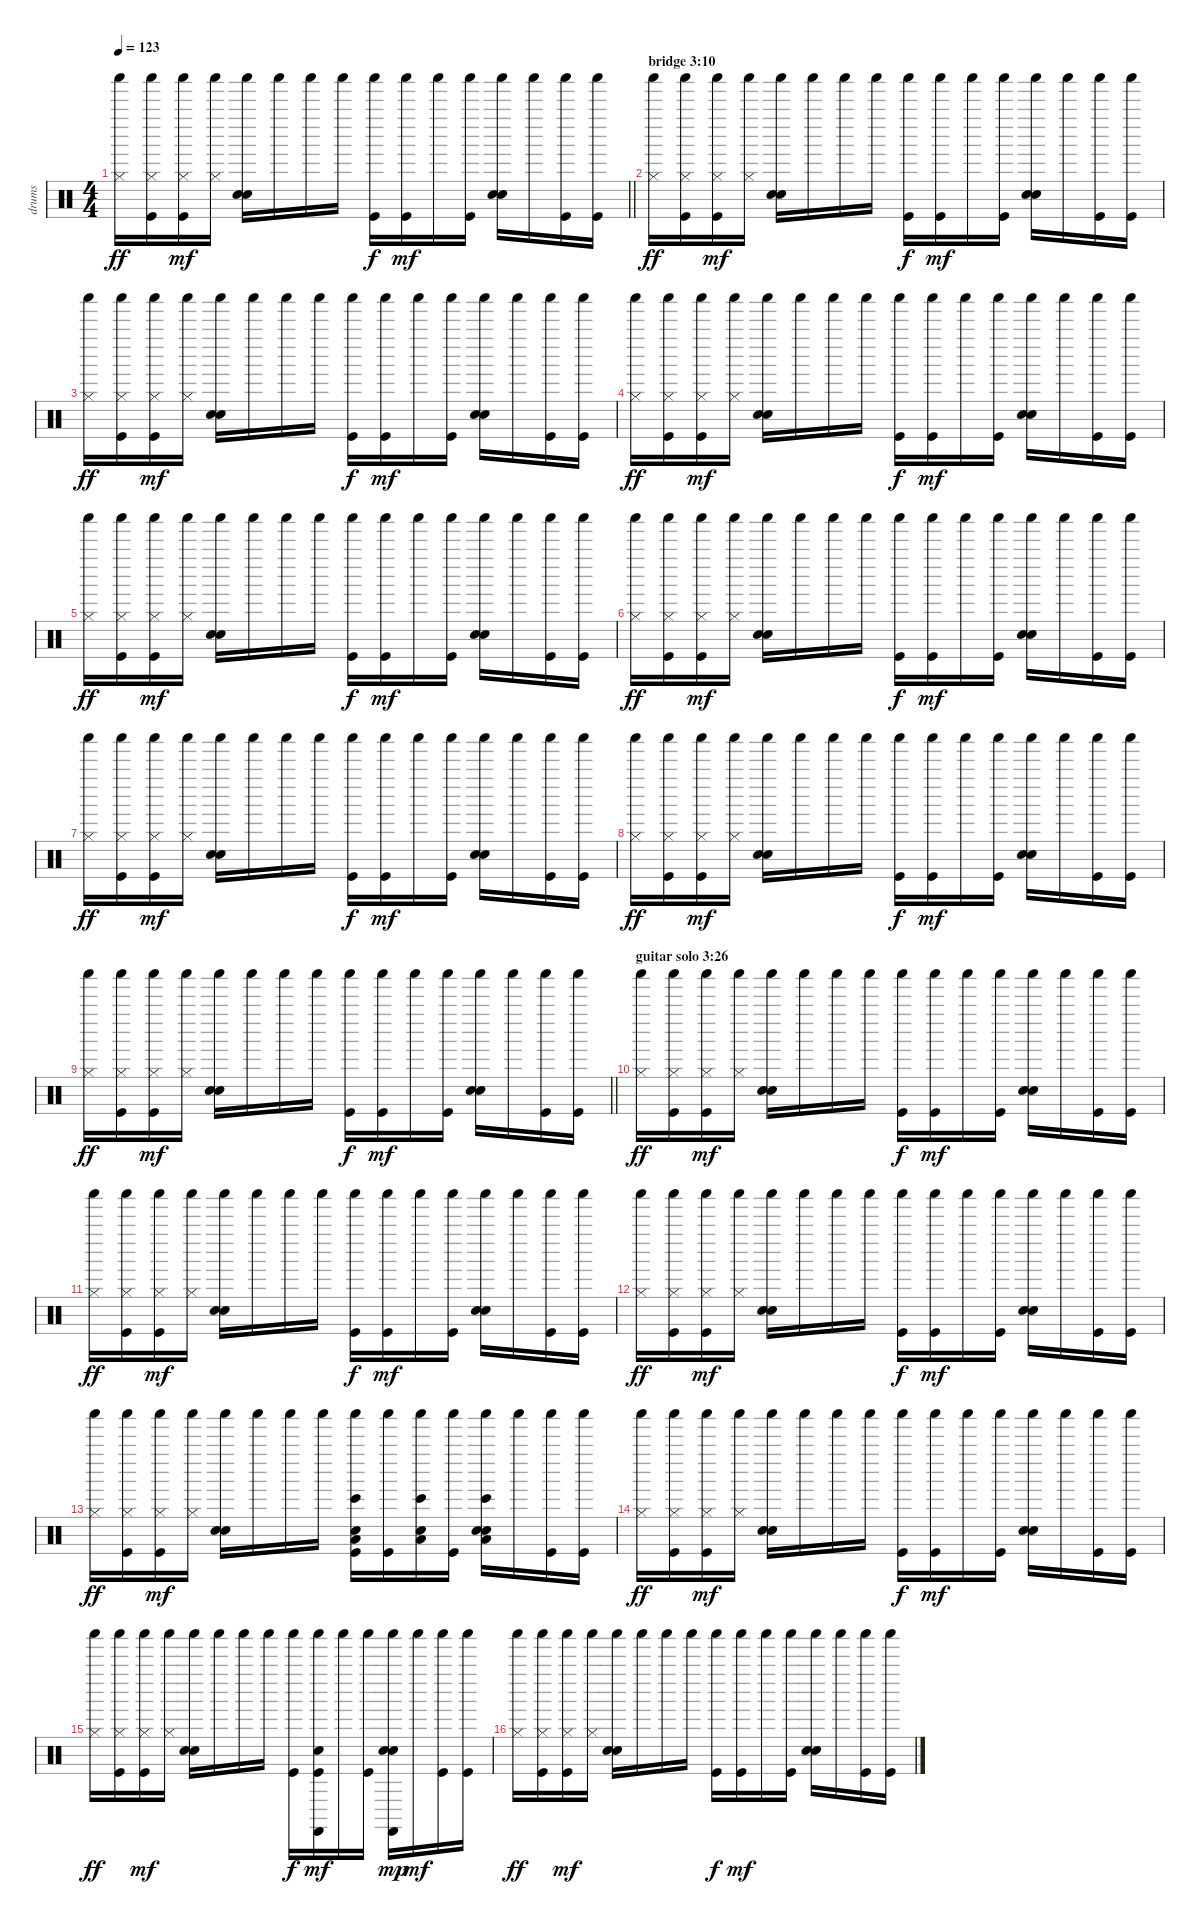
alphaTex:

\track ("drums" "drums") {instrument percussion}
\staff {score}
\articulation defaults
\ts (4 4)
\tempo 123
\clef neutral
\barLineRight lightlight
\ks c
("Shaker (hit)" "Hi-Hat (closed)").16{dy ff} ("Shaker (hit)" "Hi-Hat (closed)" "Kick (hit)").16 ("Shaker (hit)" "Hi-Hat (closed)" "Kick (hit)").16{dy mf} ("Shaker (hit)" "Hi-Hat (closed)").16 ("Shaker (hit)" "Electric Snare (hit)" "Hand Clap (hit)").16 "Shaker (hit)".16 "Shaker (hit)".16 "Shaker (hit)".16 ("Shaker (hit)" "Kick (hit)").16{dy f} ("Shaker (hit)" "Kick (hit)").16{dy mf} "Shaker (hit)".16 ("Shaker (hit)" "Kick (hit)").16 ("Shaker (hit)" "Electric Snare (hit)" "Hand Clap (hit)").16 "Shaker (hit)".16 ("Shaker (hit)" "Kick (hit)").16 ("Shaker (hit)" "Kick (hit)").16 |
\section ("" "bridge 3:10")
("Shaker (hit)" "Hi-Hat (closed)").16{dy ff} ("Shaker (hit)" "Hi-Hat (closed)" "Kick (hit)").16 ("Shaker (hit)" "Hi-Hat (closed)" "Kick (hit)").16{dy mf} ("Shaker (hit)" "Hi-Hat (closed)").16 ("Shaker (hit)" "Electric Snare (hit)" "Hand Clap (hit)").16 "Shaker (hit)".16 "Shaker (hit)".16 "Shaker (hit)".16 ("Shaker (hit)" "Kick (hit)").16{dy f} ("Shaker (hit)" "Kick (hit)").16{dy mf} "Shaker (hit)".16 ("Shaker (hit)" "Kick (hit)").16 ("Shaker (hit)" "Electric Snare (hit)" "Hand Clap (hit)").16 "Shaker (hit)".16 ("Shaker (hit)" "Kick (hit)").16 ("Shaker (hit)" "Kick (hit)").16 |
("Shaker (hit)" "Hi-Hat (closed)").16{dy ff} ("Shaker (hit)" "Hi-Hat (closed)" "Kick (hit)").16 ("Shaker (hit)" "Hi-Hat (closed)" "Kick (hit)").16{dy mf} ("Shaker (hit)" "Hi-Hat (closed)").16 ("Shaker (hit)" "Electric Snare (hit)" "Hand Clap (hit)").16 "Shaker (hit)".16 "Shaker (hit)".16 "Shaker (hit)".16 ("Shaker (hit)" "Kick (hit)").16{dy f} ("Shaker (hit)" "Kick (hit)").16{dy mf} "Shaker (hit)".16 ("Shaker (hit)" "Kick (hit)").16 ("Shaker (hit)" "Electric Snare (hit)" "Hand Clap (hit)").16 "Shaker (hit)".16 ("Shaker (hit)" "Kick (hit)").16 ("Shaker (hit)" "Kick (hit)").16 |
("Shaker (hit)" "Hi-Hat (closed)").16{dy ff} ("Shaker (hit)" "Hi-Hat (closed)" "Kick (hit)").16 ("Shaker (hit)" "Hi-Hat (closed)" "Kick (hit)").16{dy mf} ("Shaker (hit)" "Hi-Hat (closed)").16 ("Shaker (hit)" "Electric Snare (hit)" "Hand Clap (hit)").16 "Shaker (hit)".16 "Shaker (hit)".16 "Shaker (hit)".16 ("Shaker (hit)" "Kick (hit)").16{dy f} ("Shaker (hit)" "Kick (hit)").16{dy mf} "Shaker (hit)".16 ("Shaker (hit)" "Kick (hit)").16 ("Shaker (hit)" "Electric Snare (hit)" "Hand Clap (hit)").16 "Shaker (hit)".16 ("Shaker (hit)" "Kick (hit)").16 ("Shaker (hit)" "Kick (hit)").16 |
("Shaker (hit)" "Hi-Hat (closed)").16{dy ff} ("Shaker (hit)" "Hi-Hat (closed)" "Kick (hit)").16 ("Shaker (hit)" "Hi-Hat (closed)" "Kick (hit)").16{dy mf} ("Shaker (hit)" "Hi-Hat (closed)").16 ("Shaker (hit)" "Electric Snare (hit)" "Hand Clap (hit)").16 "Shaker (hit)".16 "Shaker (hit)".16 "Shaker (hit)".16 ("Shaker (hit)" "Kick (hit)").16{dy f} ("Shaker (hit)" "Kick (hit)").16{dy mf} "Shaker (hit)".16 ("Shaker (hit)" "Kick (hit)").16 ("Shaker (hit)" "Electric Snare (hit)" "Hand Clap (hit)").16 "Shaker (hit)".16 ("Shaker (hit)" "Kick (hit)").16 ("Shaker (hit)" "Kick (hit)").16 |
("Shaker (hit)" "Hi-Hat (closed)").16{dy ff} ("Shaker (hit)" "Hi-Hat (closed)" "Kick (hit)").16 ("Shaker (hit)" "Hi-Hat (closed)" "Kick (hit)").16{dy mf} ("Shaker (hit)" "Hi-Hat (closed)").16 ("Shaker (hit)" "Electric Snare (hit)" "Hand Clap (hit)").16 "Shaker (hit)".16 "Shaker (hit)".16 "Shaker (hit)".16 ("Shaker (hit)" "Kick (hit)").16{dy f} ("Shaker (hit)" "Kick (hit)").16{dy mf} "Shaker (hit)".16 ("Shaker (hit)" "Kick (hit)").16 ("Shaker (hit)" "Electric Snare (hit)" "Hand Clap (hit)").16 "Shaker (hit)".16 ("Shaker (hit)" "Kick (hit)").16 ("Shaker (hit)" "Kick (hit)").16 |
("Shaker (hit)" "Hi-Hat (closed)").16{dy ff} ("Shaker (hit)" "Hi-Hat (closed)" "Kick (hit)").16 ("Shaker (hit)" "Hi-Hat (closed)" "Kick (hit)").16{dy mf} ("Shaker (hit)" "Hi-Hat (closed)").16 ("Shaker (hit)" "Electric Snare (hit)" "Hand Clap (hit)").16 "Shaker (hit)".16 "Shaker (hit)".16 "Shaker (hit)".16 ("Shaker (hit)" "Kick (hit)").16{dy f} ("Shaker (hit)" "Kick (hit)").16{dy mf} "Shaker (hit)".16 ("Shaker (hit)" "Kick (hit)").16 ("Shaker (hit)" "Electric Snare (hit)" "Hand Clap (hit)").16 "Shaker (hit)".16 ("Shaker (hit)" "Kick (hit)").16 ("Shaker (hit)" "Kick (hit)").16 |
("Shaker (hit)" "Hi-Hat (closed)").16{dy ff} ("Shaker (hit)" "Hi-Hat (closed)" "Kick (hit)").16 ("Shaker (hit)" "Hi-Hat (closed)" "Kick (hit)").16{dy mf} ("Shaker (hit)" "Hi-Hat (closed)").16 ("Shaker (hit)" "Electric Snare (hit)" "Hand Clap (hit)").16 "Shaker (hit)".16 "Shaker (hit)".16 "Shaker (hit)".16 ("Shaker (hit)" "Kick (hit)").16{dy f} ("Shaker (hit)" "Kick (hit)").16{dy mf} "Shaker (hit)".16 ("Shaker (hit)" "Kick (hit)").16 ("Shaker (hit)" "Electric Snare (hit)" "Hand Clap (hit)").16 "Shaker (hit)".16 ("Shaker (hit)" "Kick (hit)").16 ("Shaker (hit)" "Kick (hit)").16 |
\barLineRight lightlight
("Shaker (hit)" "Hi-Hat (closed)").16{dy ff} ("Shaker (hit)" "Hi-Hat (closed)" "Kick (hit)").16 ("Shaker (hit)" "Hi-Hat (closed)" "Kick (hit)").16{dy mf} ("Shaker (hit)" "Hi-Hat (closed)").16 ("Shaker (hit)" "Electric Snare (hit)" "Hand Clap (hit)").16 "Shaker (hit)".16 "Shaker (hit)".16 "Shaker (hit)".16 ("Shaker (hit)" "Kick (hit)").16{dy f} ("Shaker (hit)" "Kick (hit)").16{dy mf} "Shaker (hit)".16 ("Shaker (hit)" "Kick (hit)").16 ("Shaker (hit)" "Electric Snare (hit)" "Hand Clap (hit)").16 "Shaker (hit)".16 ("Shaker (hit)" "Kick (hit)").16 ("Shaker (hit)" "Kick (hit)").16 |
\section ("" "guitar solo 3:26")
("Shaker (hit)" "Hi-Hat (closed)").16{dy ff} ("Shaker (hit)" "Hi-Hat (closed)" "Kick (hit)").16 ("Shaker (hit)" "Hi-Hat (closed)" "Kick (hit)").16{dy mf} ("Shaker (hit)" "Hi-Hat (closed)").16 ("Shaker (hit)" "Electric Snare (hit)" "Hand Clap (hit)").16 "Shaker (hit)".16 "Shaker (hit)".16 "Shaker (hit)".16 ("Shaker (hit)" "Kick (hit)").16{dy f} ("Shaker (hit)" "Kick (hit)").16{dy mf} "Shaker (hit)".16 ("Shaker (hit)" "Kick (hit)").16 ("Shaker (hit)" "Electric Snare (hit)" "Hand Clap (hit)").16 "Shaker (hit)".16 ("Shaker (hit)" "Kick (hit)").16 ("Shaker (hit)" "Kick (hit)").16 |
("Shaker (hit)" "Hi-Hat (closed)").16{dy ff} ("Shaker (hit)" "Hi-Hat (closed)" "Kick (hit)").16 ("Shaker (hit)" "Hi-Hat (closed)" "Kick (hit)").16{dy mf} ("Shaker (hit)" "Hi-Hat (closed)").16 ("Shaker (hit)" "Electric Snare (hit)" "Hand Clap (hit)").16 "Shaker (hit)".16 "Shaker (hit)".16 "Shaker (hit)".16 ("Shaker (hit)" "Kick (hit)").16{dy f} ("Shaker (hit)" "Kick (hit)").16{dy mf} "Shaker (hit)".16 ("Shaker (hit)" "Kick (hit)").16 ("Shaker (hit)" "Electric Snare (hit)" "Hand Clap (hit)").16 "Shaker (hit)".16 ("Shaker (hit)" "Kick (hit)").16 ("Shaker (hit)" "Kick (hit)").16 |
("Shaker (hit)" "Hi-Hat (closed)").16{dy ff} ("Shaker (hit)" "Hi-Hat (closed)" "Kick (hit)").16 ("Shaker (hit)" "Hi-Hat (closed)" "Kick (hit)").16{dy mf} ("Shaker (hit)" "Hi-Hat (closed)").16 ("Shaker (hit)" "Electric Snare (hit)" "Hand Clap (hit)").16 "Shaker (hit)".16 "Shaker (hit)".16 "Shaker (hit)".16 ("Shaker (hit)" "Kick (hit)").16{dy f} ("Shaker (hit)" "Kick (hit)").16{dy mf} "Shaker (hit)".16 ("Shaker (hit)" "Kick (hit)").16 ("Shaker (hit)" "Electric Snare (hit)" "Hand Clap (hit)").16 "Shaker (hit)".16 ("Shaker (hit)" "Kick (hit)").16 ("Shaker (hit)" "Kick (hit)").16 |
("Shaker (hit)" "Hi-Hat (closed)").16{dy ff} ("Shaker (hit)" "Hi-Hat (closed)" "Kick (hit)").16 ("Shaker (hit)" "Hi-Hat (closed)" "Kick (hit)").16{dy mf} ("Shaker (hit)" "Hi-Hat (closed)").16 ("Shaker (hit)" "Electric Snare (hit)" "Hand Clap (hit)").16 "Shaker (hit)".16 "Shaker (hit)".16 "Shaker (hit)".16 ("Shaker (hit)" "Hand Clap (hit)" "Bongo High (hit)" "Low Tom (hit)" "Kick (hit)").16 ("Shaker (hit)" "Kick (hit)").16 ("Shaker (hit)" "Hand Clap (hit)" "Bongo High (hit)" "Low Tom (hit)").16 ("Shaker (hit)" "Kick (hit)").16 ("Shaker (hit)" "Electric Snare (hit)" "Hand Clap (hit)" "Bongo High (hit)" "Low Tom (hit)").16 "Shaker (hit)".16 ("Shaker (hit)" "Kick (hit)").16 ("Shaker (hit)" "Kick (hit)").16 |
("Shaker (hit)" "Hi-Hat (closed)").16{dy ff} ("Shaker (hit)" "Hi-Hat (closed)" "Kick (hit)").16 ("Shaker (hit)" "Hi-Hat (closed)" "Kick (hit)").16{dy mf} ("Shaker (hit)" "Hi-Hat (closed)").16 ("Shaker (hit)" "Electric Snare (hit)" "Hand Clap (hit)").16 "Shaker (hit)".16 "Shaker (hit)".16 "Shaker (hit)".16 ("Shaker (hit)" "Kick (hit)").16{dy f} ("Shaker (hit)" "Kick (hit)").16{dy mf} "Shaker (hit)".16 ("Shaker (hit)" "Kick (hit)").16 ("Shaker (hit)" "Electric Snare (hit)" "Hand Clap (hit)").16 "Shaker (hit)".16 ("Shaker (hit)" "Kick (hit)").16 ("Shaker (hit)" "Kick (hit)").16 |
("Shaker (hit)" "Hi-Hat (closed)").16{dy ff} ("Shaker (hit)" "Hi-Hat (closed)" "Kick (hit)").16 ("Shaker (hit)" "Hi-Hat (closed)" "Kick (hit)").16{dy mf} ("Shaker (hit)" "Hi-Hat (closed)").16 ("Shaker (hit)" "Electric Snare (hit)" "Hand Clap (hit)").16 "Shaker (hit)".16 "Shaker (hit)".16 "Shaker (hit)".16 ("Shaker (hit)" "Kick (hit)").16{dy f} ("Shaker (hit)" "Castanets (hit)" "Hand Clap (hit)" "Kick (hit)").16{dy mf} "Shaker (hit)".16 ("Shaker (hit)" "Kick (hit)").16 ("Shaker (hit)" "Electric Snare (hit)" "Castanets (hit)" "Hand Clap (hit)").16{dy mp} "Shaker (hit)".16{dy mf} ("Shaker (hit)" "Kick (hit)").16 ("Shaker (hit)" "Kick (hit)").16 |
("Shaker (hit)" "Hi-Hat (closed)").16{dy ff} ("Shaker (hit)" "Hi-Hat (closed)" "Kick (hit)").16 ("Shaker (hit)" "Hi-Hat (closed)" "Kick (hit)").16{dy mf} ("Shaker (hit)" "Hi-Hat (closed)").16 ("Shaker (hit)" "Electric Snare (hit)" "Hand Clap (hit)").16 "Shaker (hit)".16 "Shaker (hit)".16 "Shaker (hit)".16 ("Shaker (hit)" "Kick (hit)").16{dy f} ("Shaker (hit)" "Kick (hit)").16{dy mf} "Shaker (hit)".16 ("Shaker (hit)" "Kick (hit)").16 ("Shaker (hit)" "Electric Snare (hit)" "Hand Clap (hit)").16 "Shaker (hit)".16 ("Shaker (hit)" "Kick (hit)").16 ("Shaker (hit)" "Kick (hit)").16
